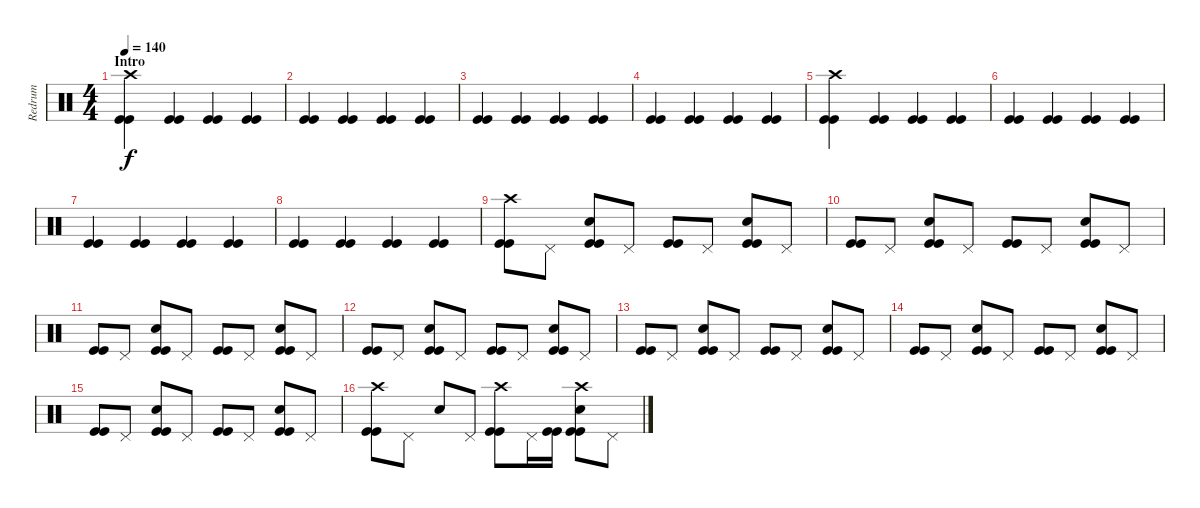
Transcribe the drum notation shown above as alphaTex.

\track ("Redrum" "Redrum") {instrument percussion}
\staff {score}
\articulation defaults
\ts (4 4)
\section ("" "Intro")
\tempo 140
\clef neutral
\ks c
("Crash high (hit)" "Kick (hit)" "Kick (hit)").4{dy f} ("Kick (hit)" "Kick (hit)").4 ("Kick (hit)" "Kick (hit)").4 ("Kick (hit)" "Kick (hit)").4 |
("Kick (hit)" "Kick (hit)").4 ("Kick (hit)" "Kick (hit)").4 ("Kick (hit)" "Kick (hit)").4 ("Kick (hit)" "Kick (hit)").4 |
("Kick (hit)" "Kick (hit)").4 ("Kick (hit)" "Kick (hit)").4 ("Kick (hit)" "Kick (hit)").4 ("Kick (hit)" "Kick (hit)").4 |
("Kick (hit)" "Kick (hit)").4 ("Kick (hit)" "Kick (hit)").4 ("Kick (hit)" "Kick (hit)").4 ("Kick (hit)" "Kick (hit)").4 |
("Crash high (hit)" "Kick (hit)" "Kick (hit)").4 ("Kick (hit)" "Kick (hit)").4 ("Kick (hit)" "Kick (hit)").4 ("Kick (hit)" "Kick (hit)").4 |
("Kick (hit)" "Kick (hit)").4 ("Kick (hit)" "Kick (hit)").4 ("Kick (hit)" "Kick (hit)").4 ("Kick (hit)" "Kick (hit)").4 |
("Kick (hit)" "Kick (hit)").4 ("Kick (hit)" "Kick (hit)").4 ("Kick (hit)" "Kick (hit)").4 ("Kick (hit)" "Kick (hit)").4 |
("Kick (hit)" "Kick (hit)").4 ("Kick (hit)" "Kick (hit)").4 ("Kick (hit)" "Kick (hit)").4 ("Kick (hit)" "Kick (hit)").4 |
("Crash high (hit)" "Kick (hit)" "Kick (hit)").8 "Pedal Hi-Hat (hit)".8 ("Hand Clap (hit)" "Kick (hit)" "Kick (hit)").8 "Pedal Hi-Hat (hit)".8 ("Kick (hit)" "Kick (hit)").8 "Pedal Hi-Hat (hit)".8 ("Hand Clap (hit)" "Kick (hit)" "Kick (hit)").8 "Pedal Hi-Hat (hit)".8 |
("Kick (hit)" "Kick (hit)").8 "Pedal Hi-Hat (hit)".8 ("Hand Clap (hit)" "Kick (hit)" "Kick (hit)").8 "Pedal Hi-Hat (hit)".8 ("Kick (hit)" "Kick (hit)").8 "Pedal Hi-Hat (hit)".8 ("Hand Clap (hit)" "Kick (hit)" "Kick (hit)").8 "Pedal Hi-Hat (hit)".8 |
("Kick (hit)" "Kick (hit)").8 "Pedal Hi-Hat (hit)".8 ("Hand Clap (hit)" "Kick (hit)" "Kick (hit)").8 "Pedal Hi-Hat (hit)".8 ("Kick (hit)" "Kick (hit)").8 "Pedal Hi-Hat (hit)".8 ("Hand Clap (hit)" "Kick (hit)" "Kick (hit)").8 "Pedal Hi-Hat (hit)".8 |
("Kick (hit)" "Kick (hit)").8 "Pedal Hi-Hat (hit)".8 ("Hand Clap (hit)" "Kick (hit)" "Kick (hit)").8 "Pedal Hi-Hat (hit)".8 ("Kick (hit)" "Kick (hit)").8 "Pedal Hi-Hat (hit)".8 ("Hand Clap (hit)" "Kick (hit)" "Kick (hit)").8 "Pedal Hi-Hat (hit)".8 |
("Kick (hit)" "Kick (hit)").8 "Pedal Hi-Hat (hit)".8 ("Hand Clap (hit)" "Kick (hit)" "Kick (hit)").8 "Pedal Hi-Hat (hit)".8 ("Kick (hit)" "Kick (hit)").8 "Pedal Hi-Hat (hit)".8 ("Hand Clap (hit)" "Kick (hit)" "Kick (hit)").8 "Pedal Hi-Hat (hit)".8 |
("Kick (hit)" "Kick (hit)").8 "Pedal Hi-Hat (hit)".8 ("Hand Clap (hit)" "Kick (hit)" "Kick (hit)").8 "Pedal Hi-Hat (hit)".8 ("Kick (hit)" "Kick (hit)").8 "Pedal Hi-Hat (hit)".8 ("Hand Clap (hit)" "Kick (hit)" "Kick (hit)").8 "Pedal Hi-Hat (hit)".8 |
("Kick (hit)" "Kick (hit)").8 "Pedal Hi-Hat (hit)".8 ("Hand Clap (hit)" "Kick (hit)" "Kick (hit)").8 "Pedal Hi-Hat (hit)".8 ("Kick (hit)" "Kick (hit)").8 "Pedal Hi-Hat (hit)".8 ("Hand Clap (hit)" "Kick (hit)" "Kick (hit)").8 "Pedal Hi-Hat (hit)".8 |
("Crash high (hit)" "Kick (hit)" "Kick (hit)").8 "Pedal Hi-Hat (hit)".8 "Hand Clap (hit)".8 "Pedal Hi-Hat (hit)".8 ("Crash high (hit)" "Kick (hit)" "Kick (hit)").8 "Pedal Hi-Hat (hit)".16 ("Kick (hit)" "Kick (hit)").16 ("Crash high (hit)" "Hand Clap (hit)" "Kick (hit)" "Kick (hit)").8 "Pedal Hi-Hat (hit)".8
